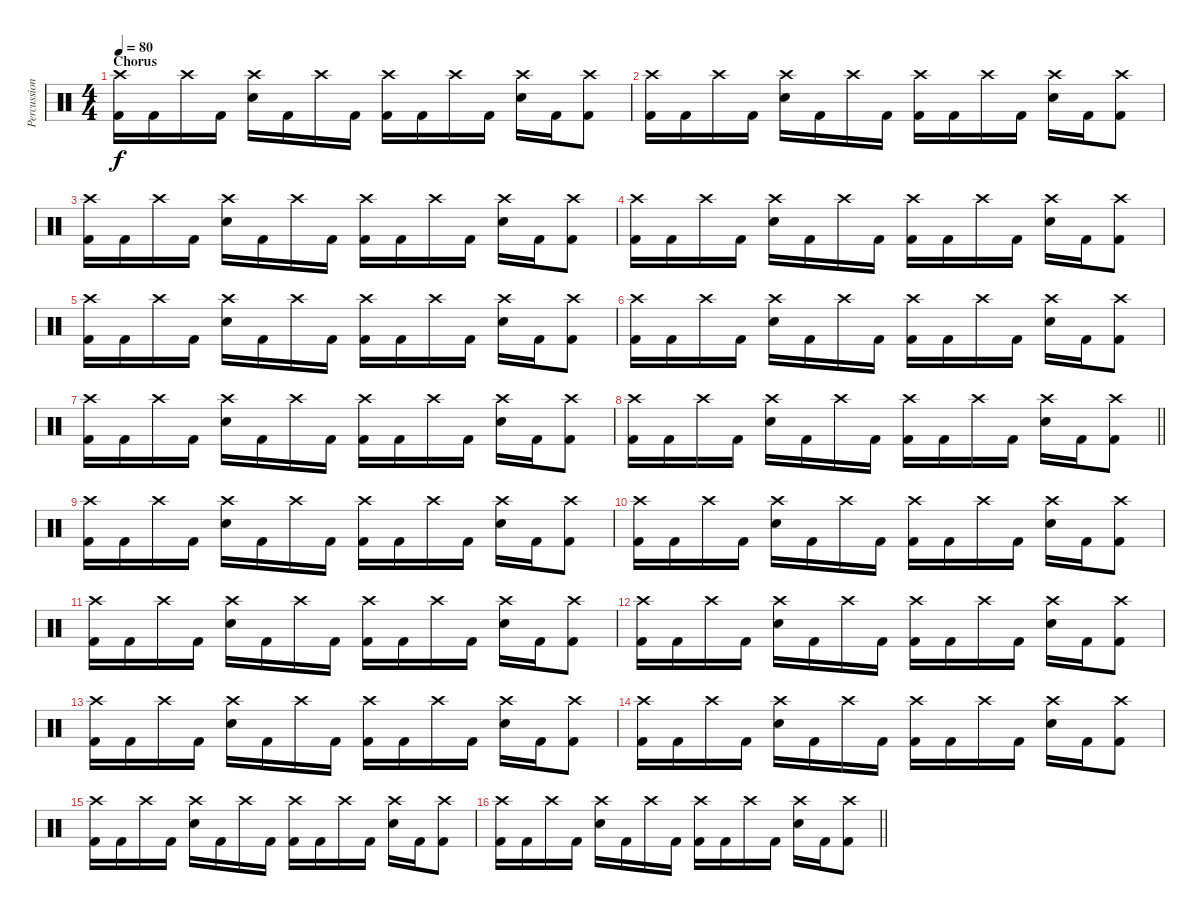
\track ("Percussion" "Percussion") {instrument percussion}
\staff {score}
\articulation defaults
\ts (4 4)
\section ("" "Chorus")
\tempo 80
\clef neutral
\ks c
("Crash high (hit)" "Kick (hit) 2").16{dy f} "Kick (hit) 2".16 "Crash high (hit)".16 "Kick (hit) 2".16 ("Snare (hit) 2" "Crash high (hit)").16 "Kick (hit) 2".16 "Crash high (hit)".16 "Kick (hit) 2".16 ("Kick (hit) 2" "Crash high (hit)").16 "Kick (hit) 2".16 "Crash high (hit)".16 "Kick (hit) 2".16 ("Crash high (hit)" "Snare (hit) 2").16 "Kick (hit) 2".16 ("Crash high (hit)" "Kick (hit) 2").8 |
("Crash high (hit)" "Kick (hit) 2").16 "Kick (hit) 2".16 "Crash high (hit)".16 "Kick (hit) 2".16 ("Snare (hit) 2" "Crash high (hit)").16 "Kick (hit) 2".16 "Crash high (hit)".16 "Kick (hit) 2".16 ("Kick (hit) 2" "Crash high (hit)").16 "Kick (hit) 2".16 "Crash high (hit)".16 "Kick (hit) 2".16 ("Crash high (hit)" "Snare (hit) 2").16 "Kick (hit) 2".16 ("Crash high (hit)" "Kick (hit) 2").8 |
("Crash high (hit)" "Kick (hit) 2").16 "Kick (hit) 2".16 "Crash high (hit)".16 "Kick (hit) 2".16 ("Snare (hit) 2" "Crash high (hit)").16 "Kick (hit) 2".16 "Crash high (hit)".16 "Kick (hit) 2".16 ("Kick (hit) 2" "Crash high (hit)").16 "Kick (hit) 2".16 "Crash high (hit)".16 "Kick (hit) 2".16 ("Crash high (hit)" "Snare (hit) 2").16 "Kick (hit) 2".16 ("Crash high (hit)" "Kick (hit) 2").8 |
("Crash high (hit)" "Kick (hit) 2").16 "Kick (hit) 2".16 "Crash high (hit)".16 "Kick (hit) 2".16 ("Snare (hit) 2" "Crash high (hit)").16 "Kick (hit) 2".16 "Crash high (hit)".16 "Kick (hit) 2".16 ("Kick (hit) 2" "Crash high (hit)").16 "Kick (hit) 2".16 "Crash high (hit)".16 "Kick (hit) 2".16 ("Crash high (hit)" "Snare (hit) 2").16 "Kick (hit) 2".16 ("Crash high (hit)" "Kick (hit) 2").8 |
("Crash high (hit)" "Kick (hit) 2").16 "Kick (hit) 2".16 "Crash high (hit)".16 "Kick (hit) 2".16 ("Snare (hit) 2" "Crash high (hit)").16 "Kick (hit) 2".16 "Crash high (hit)".16 "Kick (hit) 2".16 ("Kick (hit) 2" "Crash high (hit)").16 "Kick (hit) 2".16 "Crash high (hit)".16 "Kick (hit) 2".16 ("Crash high (hit)" "Snare (hit) 2").16 "Kick (hit) 2".16 ("Crash high (hit)" "Kick (hit) 2").8 |
("Crash high (hit)" "Kick (hit) 2").16 "Kick (hit) 2".16 "Crash high (hit)".16 "Kick (hit) 2".16 ("Snare (hit) 2" "Crash high (hit)").16 "Kick (hit) 2".16 "Crash high (hit)".16 "Kick (hit) 2".16 ("Kick (hit) 2" "Crash high (hit)").16 "Kick (hit) 2".16 "Crash high (hit)".16 "Kick (hit) 2".16 ("Crash high (hit)" "Snare (hit) 2").16 "Kick (hit) 2".16 ("Crash high (hit)" "Kick (hit) 2").8 |
("Crash high (hit)" "Kick (hit) 2").16 "Kick (hit) 2".16 "Crash high (hit)".16 "Kick (hit) 2".16 ("Snare (hit) 2" "Crash high (hit)").16 "Kick (hit) 2".16 "Crash high (hit)".16 "Kick (hit) 2".16 ("Kick (hit) 2" "Crash high (hit)").16 "Kick (hit) 2".16 "Crash high (hit)".16 "Kick (hit) 2".16 ("Crash high (hit)" "Snare (hit) 2").16 "Kick (hit) 2".16 ("Crash high (hit)" "Kick (hit) 2").8 |
\barLineRight lightlight
("Crash high (hit)" "Kick (hit) 2").16 "Kick (hit) 2".16 "Crash high (hit)".16 "Kick (hit) 2".16 ("Snare (hit) 2" "Crash high (hit)").16 "Kick (hit) 2".16 "Crash high (hit)".16 "Kick (hit) 2".16 ("Kick (hit) 2" "Crash high (hit)").16 "Kick (hit) 2".16 "Crash high (hit)".16 "Kick (hit) 2".16 ("Crash high (hit)" "Snare (hit) 2").16 "Kick (hit) 2".16 ("Crash high (hit)" "Kick (hit) 2").8 |
\section ("" "")
("Crash high (hit)" "Kick (hit) 2").16 "Kick (hit) 2".16 "Crash high (hit)".16 "Kick (hit) 2".16 ("Snare (hit) 2" "Crash high (hit)").16 "Kick (hit) 2".16 "Crash high (hit)".16 "Kick (hit) 2".16 ("Kick (hit) 2" "Crash high (hit)").16 "Kick (hit) 2".16 "Crash high (hit)".16 "Kick (hit) 2".16 ("Crash high (hit)" "Snare (hit) 2").16 "Kick (hit) 2".16 ("Crash high (hit)" "Kick (hit) 2").8 |
("Crash high (hit)" "Kick (hit) 2").16 "Kick (hit) 2".16 "Crash high (hit)".16 "Kick (hit) 2".16 ("Snare (hit) 2" "Crash high (hit)").16 "Kick (hit) 2".16 "Crash high (hit)".16 "Kick (hit) 2".16 ("Kick (hit) 2" "Crash high (hit)").16 "Kick (hit) 2".16 "Crash high (hit)".16 "Kick (hit) 2".16 ("Crash high (hit)" "Snare (hit) 2").16 "Kick (hit) 2".16 ("Crash high (hit)" "Kick (hit) 2").8 |
("Crash high (hit)" "Kick (hit) 2").16 "Kick (hit) 2".16 "Crash high (hit)".16 "Kick (hit) 2".16 ("Snare (hit) 2" "Crash high (hit)").16 "Kick (hit) 2".16 "Crash high (hit)".16 "Kick (hit) 2".16 ("Kick (hit) 2" "Crash high (hit)").16 "Kick (hit) 2".16 "Crash high (hit)".16 "Kick (hit) 2".16 ("Crash high (hit)" "Snare (hit) 2").16 "Kick (hit) 2".16 ("Crash high (hit)" "Kick (hit) 2").8 |
("Crash high (hit)" "Kick (hit) 2").16 "Kick (hit) 2".16 "Crash high (hit)".16 "Kick (hit) 2".16 ("Snare (hit) 2" "Crash high (hit)").16 "Kick (hit) 2".16 "Crash high (hit)".16 "Kick (hit) 2".16 ("Kick (hit) 2" "Crash high (hit)").16 "Kick (hit) 2".16 "Crash high (hit)".16 "Kick (hit) 2".16 ("Crash high (hit)" "Snare (hit) 2").16 "Kick (hit) 2".16 ("Crash high (hit)" "Kick (hit) 2").8 |
("Crash high (hit)" "Kick (hit) 2").16 "Kick (hit) 2".16 "Crash high (hit)".16 "Kick (hit) 2".16 ("Snare (hit) 2" "Crash high (hit)").16 "Kick (hit) 2".16 "Crash high (hit)".16 "Kick (hit) 2".16 ("Kick (hit) 2" "Crash high (hit)").16 "Kick (hit) 2".16 "Crash high (hit)".16 "Kick (hit) 2".16 ("Crash high (hit)" "Snare (hit) 2").16 "Kick (hit) 2".16 ("Crash high (hit)" "Kick (hit) 2").8 |
("Crash high (hit)" "Kick (hit) 2").16 "Kick (hit) 2".16 "Crash high (hit)".16 "Kick (hit) 2".16 ("Snare (hit) 2" "Crash high (hit)").16 "Kick (hit) 2".16 "Crash high (hit)".16 "Kick (hit) 2".16 ("Kick (hit) 2" "Crash high (hit)").16 "Kick (hit) 2".16 "Crash high (hit)".16 "Kick (hit) 2".16 ("Crash high (hit)" "Snare (hit) 2").16 "Kick (hit) 2".16 ("Crash high (hit)" "Kick (hit) 2").8 |
("Crash high (hit)" "Kick (hit) 2").16 "Kick (hit) 2".16 "Crash high (hit)".16 "Kick (hit) 2".16 ("Snare (hit) 2" "Crash high (hit)").16 "Kick (hit) 2".16 "Crash high (hit)".16 "Kick (hit) 2".16 ("Kick (hit) 2" "Crash high (hit)").16 "Kick (hit) 2".16 "Crash high (hit)".16 "Kick (hit) 2".16 ("Crash high (hit)" "Snare (hit) 2").16 "Kick (hit) 2".16 ("Crash high (hit)" "Kick (hit) 2").8 |
\barLineRight lightlight
("Crash high (hit)" "Kick (hit) 2").16 "Kick (hit) 2".16 "Crash high (hit)".16 "Kick (hit) 2".16 ("Snare (hit) 2" "Crash high (hit)").16 "Kick (hit) 2".16 "Crash high (hit)".16 "Kick (hit) 2".16 ("Kick (hit) 2" "Crash high (hit)").16 "Kick (hit) 2".16 "Crash high (hit)".16 "Kick (hit) 2".16 ("Crash high (hit)" "Snare (hit) 2").16 "Kick (hit) 2".16 ("Crash high (hit)" "Kick (hit) 2").8
